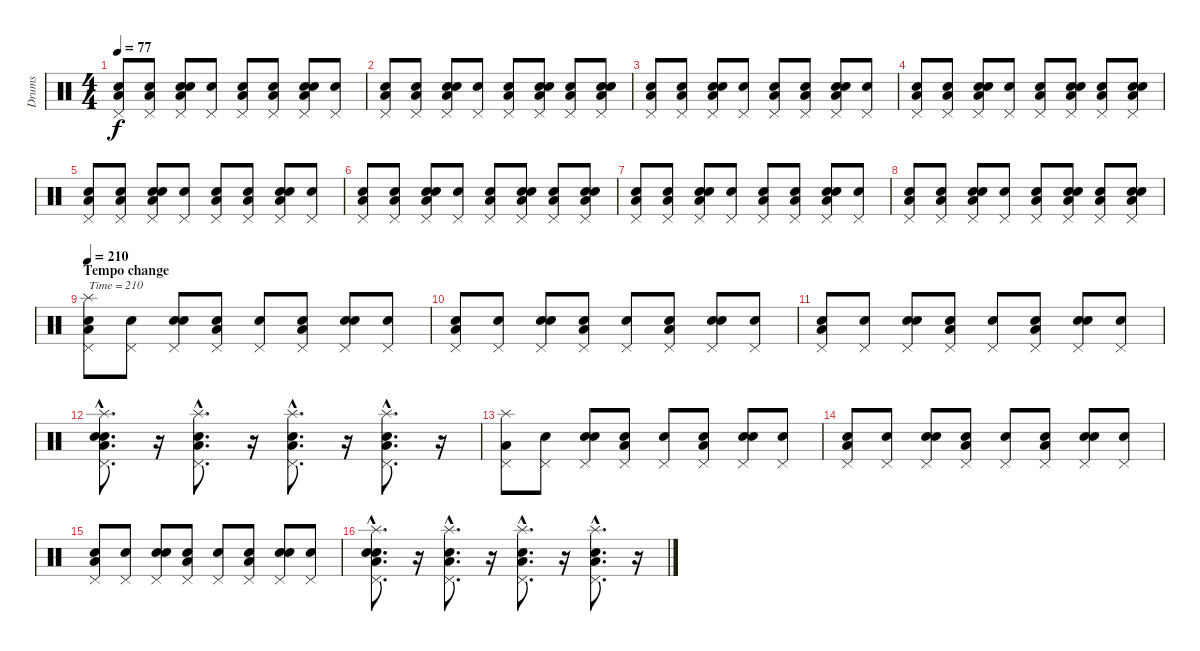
\track ("Drums" "Drums") {instrument percussion}
\staff {score}
\articulation defaults
\ts (4 4)
\tempo 77
\clef neutral
\ks c
("Snare (hit)" "Low Floor Tom (hit)" "Pedal Hi-Hat (hit)").8{dy f} ("Snare (hit)" "Low Floor Tom (hit)" "Pedal Hi-Hat (hit)").8 ("Snare (hit)" "Electric Snare (hit)" "Low Floor Tom (hit)" "Pedal Hi-Hat (hit)").8 ("Snare (hit)" "Pedal Hi-Hat (hit)").8 ("Snare (hit)" "Low Floor Tom (hit)" "Pedal Hi-Hat (hit)").8 ("Snare (hit)" "Low Floor Tom (hit)" "Pedal Hi-Hat (hit)").8 ("Snare (hit)" "Electric Snare (hit)" "Low Floor Tom (hit)" "Pedal Hi-Hat (hit)").8 ("Snare (hit)" "Pedal Hi-Hat (hit)").8 |
("Snare (hit)" "Low Floor Tom (hit)" "Pedal Hi-Hat (hit)").8 ("Snare (hit)" "Low Floor Tom (hit)" "Pedal Hi-Hat (hit)").8 ("Snare (hit)" "Electric Snare (hit)" "Low Floor Tom (hit)" "Pedal Hi-Hat (hit)").8 ("Snare (hit)" "Pedal Hi-Hat (hit)").8 ("Snare (hit)" "Low Floor Tom (hit)" "Pedal Hi-Hat (hit)").8 ("Snare (hit)" "Electric Snare (hit)" "Low Floor Tom (hit)" "Pedal Hi-Hat (hit)").8 ("Snare (hit)" "Low Floor Tom (hit)" "Pedal Hi-Hat (hit)").8 ("Snare (hit)" "Electric Snare (hit)" "Low Floor Tom (hit)" "Pedal Hi-Hat (hit)").8 |
("Snare (hit)" "Low Floor Tom (hit)" "Pedal Hi-Hat (hit)").8 ("Snare (hit)" "Low Floor Tom (hit)" "Pedal Hi-Hat (hit)").8 ("Snare (hit)" "Electric Snare (hit)" "Low Floor Tom (hit)" "Pedal Hi-Hat (hit)").8 ("Snare (hit)" "Pedal Hi-Hat (hit)").8 ("Snare (hit)" "Low Floor Tom (hit)" "Pedal Hi-Hat (hit)").8 ("Snare (hit)" "Low Floor Tom (hit)" "Pedal Hi-Hat (hit)").8 ("Snare (hit)" "Electric Snare (hit)" "Low Floor Tom (hit)" "Pedal Hi-Hat (hit)").8 ("Snare (hit)" "Pedal Hi-Hat (hit)").8 |
("Snare (hit)" "Low Floor Tom (hit)" "Pedal Hi-Hat (hit)").8 ("Snare (hit)" "Low Floor Tom (hit)" "Pedal Hi-Hat (hit)").8 ("Snare (hit)" "Electric Snare (hit)" "Low Floor Tom (hit)" "Pedal Hi-Hat (hit)").8 ("Snare (hit)" "Pedal Hi-Hat (hit)").8 ("Snare (hit)" "Low Floor Tom (hit)" "Pedal Hi-Hat (hit)").8 ("Snare (hit)" "Electric Snare (hit)" "Low Floor Tom (hit)" "Pedal Hi-Hat (hit)").8 ("Snare (hit)" "Low Floor Tom (hit)" "Pedal Hi-Hat (hit)").8 ("Snare (hit)" "Electric Snare (hit)" "Low Floor Tom (hit)" "Pedal Hi-Hat (hit)").8 |
("Snare (hit)" "Low Floor Tom (hit)" "Pedal Hi-Hat (hit)").8 ("Snare (hit)" "Low Floor Tom (hit)" "Pedal Hi-Hat (hit)").8 ("Snare (hit)" "Electric Snare (hit)" "Low Floor Tom (hit)" "Pedal Hi-Hat (hit)").8 ("Snare (hit)" "Pedal Hi-Hat (hit)").8 ("Snare (hit)" "Low Floor Tom (hit)" "Pedal Hi-Hat (hit)").8 ("Snare (hit)" "Low Floor Tom (hit)" "Pedal Hi-Hat (hit)").8 ("Snare (hit)" "Electric Snare (hit)" "Low Floor Tom (hit)" "Pedal Hi-Hat (hit)").8 ("Snare (hit)" "Pedal Hi-Hat (hit)").8 |
("Snare (hit)" "Low Floor Tom (hit)" "Pedal Hi-Hat (hit)").8 ("Snare (hit)" "Low Floor Tom (hit)" "Pedal Hi-Hat (hit)").8 ("Snare (hit)" "Electric Snare (hit)" "Low Floor Tom (hit)" "Pedal Hi-Hat (hit)").8 ("Snare (hit)" "Pedal Hi-Hat (hit)").8 ("Snare (hit)" "Low Floor Tom (hit)" "Pedal Hi-Hat (hit)").8 ("Snare (hit)" "Electric Snare (hit)" "Low Floor Tom (hit)" "Pedal Hi-Hat (hit)").8 ("Snare (hit)" "Low Floor Tom (hit)" "Pedal Hi-Hat (hit)").8 ("Snare (hit)" "Electric Snare (hit)" "Low Floor Tom (hit)" "Pedal Hi-Hat (hit)").8 |
("Snare (hit)" "Low Floor Tom (hit)" "Pedal Hi-Hat (hit)").8 ("Snare (hit)" "Low Floor Tom (hit)" "Pedal Hi-Hat (hit)").8 ("Snare (hit)" "Electric Snare (hit)" "Low Floor Tom (hit)" "Pedal Hi-Hat (hit)").8 ("Snare (hit)" "Pedal Hi-Hat (hit)").8 ("Snare (hit)" "Low Floor Tom (hit)" "Pedal Hi-Hat (hit)").8 ("Snare (hit)" "Low Floor Tom (hit)" "Pedal Hi-Hat (hit)").8 ("Snare (hit)" "Electric Snare (hit)" "Low Floor Tom (hit)" "Pedal Hi-Hat (hit)").8 ("Snare (hit)" "Pedal Hi-Hat (hit)").8 |
("Snare (hit)" "Low Floor Tom (hit)" "Pedal Hi-Hat (hit)").8 ("Snare (hit)" "Low Floor Tom (hit)" "Pedal Hi-Hat (hit)").8 ("Snare (hit)" "Electric Snare (hit)" "Low Floor Tom (hit)" "Pedal Hi-Hat (hit)").8 ("Snare (hit)" "Pedal Hi-Hat (hit)").8 ("Snare (hit)" "Low Floor Tom (hit)" "Pedal Hi-Hat (hit)").8 ("Snare (hit)" "Electric Snare (hit)" "Low Floor Tom (hit)" "Pedal Hi-Hat (hit)").8 ("Snare (hit)" "Low Floor Tom (hit)" "Pedal Hi-Hat (hit)").8 ("Snare (hit)" "Electric Snare (hit)" "Low Floor Tom (hit)" "Pedal Hi-Hat (hit)").8 |
\section ("" "Tempo change")
\tempo 210
("Snare (hit)" "Low Floor Tom (hit)" "Pedal Hi-Hat (hit)" "Splash (hit)").8{txt "Time = 210"} ("Snare (hit)" "Pedal Hi-Hat (hit)").8 ("Snare (hit)" "Electric Snare (hit)" "Pedal Hi-Hat (hit)").8 ("Snare (hit)" "Low Floor Tom (hit)" "Pedal Hi-Hat (hit)").8 ("Snare (hit)" "Pedal Hi-Hat (hit)").8 ("Snare (hit)" "Low Floor Tom (hit)" "Pedal Hi-Hat (hit)").8 ("Snare (hit)" "Electric Snare (hit)" "Pedal Hi-Hat (hit)").8 ("Snare (hit)" "Pedal Hi-Hat (hit)").8 |
("Snare (hit)" "Low Floor Tom (hit)" "Pedal Hi-Hat (hit)").8 ("Snare (hit)" "Pedal Hi-Hat (hit)").8 ("Snare (hit)" "Electric Snare (hit)" "Pedal Hi-Hat (hit)").8 ("Snare (hit)" "Low Floor Tom (hit)" "Pedal Hi-Hat (hit)").8 ("Snare (hit)" "Pedal Hi-Hat (hit)").8 ("Snare (hit)" "Low Floor Tom (hit)" "Pedal Hi-Hat (hit)").8 ("Snare (hit)" "Electric Snare (hit)" "Pedal Hi-Hat (hit)").8 ("Snare (hit)" "Pedal Hi-Hat (hit)").8 |
("Snare (hit)" "Low Floor Tom (hit)" "Pedal Hi-Hat (hit)").8 ("Snare (hit)" "Pedal Hi-Hat (hit)").8 ("Snare (hit)" "Electric Snare (hit)" "Pedal Hi-Hat (hit)").8 ("Snare (hit)" "Low Floor Tom (hit)" "Pedal Hi-Hat (hit)").8 ("Snare (hit)" "Pedal Hi-Hat (hit)").8 ("Snare (hit)" "Low Floor Tom (hit)" "Pedal Hi-Hat (hit)").8 ("Snare (hit)" "Electric Snare (hit)" "Pedal Hi-Hat (hit)").8 ("Snare (hit)" "Pedal Hi-Hat (hit)").8 |
("Snare (hit)"{hac} "Electric Snare (hit)"{hac} "Low Floor Tom (hit)"{hac} "Pedal Hi-Hat (hit)"{hac} "Splash (hit)"{hac}).8{d} r.16 ("Electric Snare (hit)"{hac} "Low Floor Tom (hit)"{hac} "Pedal Hi-Hat (hit)"{hac} "Splash (hit)"{hac}).8{d} r.16 ("Electric Snare (hit)"{hac} "Low Floor Tom (hit)"{hac} "Pedal Hi-Hat (hit)"{hac} "Splash (hit)"{hac}).8{d} r.16 ("Electric Snare (hit)"{hac} "Low Floor Tom (hit)"{hac} "Pedal Hi-Hat (hit)"{hac} "Splash (hit)"{hac}).8{d} r.16 |
("Low Floor Tom (hit)" "Pedal Hi-Hat (hit)" "Splash (hit)").8 ("Snare (hit)" "Pedal Hi-Hat (hit)").8 ("Snare (hit)" "Electric Snare (hit)" "Pedal Hi-Hat (hit)").8 ("Snare (hit)" "Low Floor Tom (hit)" "Pedal Hi-Hat (hit)").8 ("Snare (hit)" "Pedal Hi-Hat (hit)").8 ("Snare (hit)" "Low Floor Tom (hit)" "Pedal Hi-Hat (hit)").8 ("Snare (hit)" "Electric Snare (hit)" "Pedal Hi-Hat (hit)").8 ("Snare (hit)" "Pedal Hi-Hat (hit)").8 |
("Snare (hit)" "Low Floor Tom (hit)" "Pedal Hi-Hat (hit)").8 ("Snare (hit)" "Pedal Hi-Hat (hit)").8 ("Snare (hit)" "Electric Snare (hit)" "Pedal Hi-Hat (hit)").8 ("Snare (hit)" "Low Floor Tom (hit)" "Pedal Hi-Hat (hit)").8 ("Snare (hit)" "Pedal Hi-Hat (hit)").8 ("Snare (hit)" "Low Floor Tom (hit)" "Pedal Hi-Hat (hit)").8 ("Snare (hit)" "Electric Snare (hit)" "Pedal Hi-Hat (hit)").8 ("Snare (hit)" "Pedal Hi-Hat (hit)").8 |
("Snare (hit)" "Low Floor Tom (hit)" "Pedal Hi-Hat (hit)").8 ("Snare (hit)" "Pedal Hi-Hat (hit)").8 ("Snare (hit)" "Electric Snare (hit)" "Pedal Hi-Hat (hit)").8 ("Snare (hit)" "Low Floor Tom (hit)" "Pedal Hi-Hat (hit)").8 ("Snare (hit)" "Pedal Hi-Hat (hit)").8 ("Snare (hit)" "Low Floor Tom (hit)" "Pedal Hi-Hat (hit)").8 ("Snare (hit)" "Electric Snare (hit)" "Pedal Hi-Hat (hit)").8 ("Snare (hit)" "Pedal Hi-Hat (hit)").8 |
("Snare (hit)"{hac} "Electric Snare (hit)"{hac} "Low Floor Tom (hit)"{hac} "Pedal Hi-Hat (hit)"{hac} "Splash (hit)"{hac}).8{d} r.16 ("Electric Snare (hit)"{hac} "Low Floor Tom (hit)"{hac} "Pedal Hi-Hat (hit)"{hac} "Splash (hit)"{hac}).8{d} r.16 ("Electric Snare (hit)"{hac} "Low Floor Tom (hit)"{hac} "Pedal Hi-Hat (hit)"{hac} "Splash (hit)"{hac}).8{d} r.16 ("Electric Snare (hit)"{hac} "Low Floor Tom (hit)"{hac} "Pedal Hi-Hat (hit)"{hac} "Splash (hit)"{hac}).8{d} r.16
